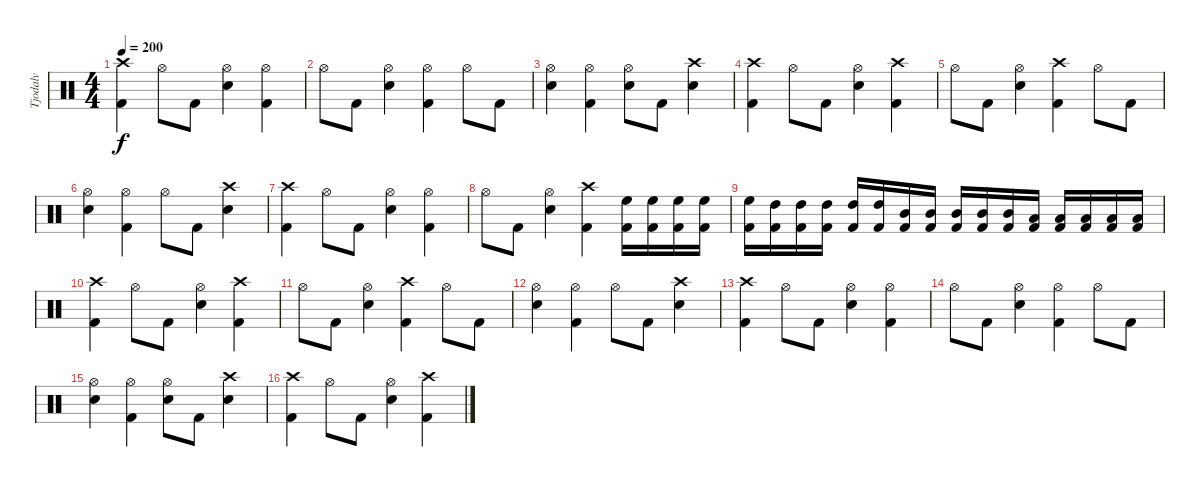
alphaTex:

\track ("Tjodalv" "Tjodalv") {instrument percussion}
\staff {score}
\articulation defaults
\ts (4 4)
\tempo 200
\clef neutral
\ks c
("Kick (hit) 2" "Crash high (hit)").4{dy f} "Hi-Hat (open)".8 "Kick (hit) 2".8 ("Snare (hit) 2" "Hi-Hat (open)").4 ("Kick (hit) 2" "Hi-Hat (open)").4 |
"Hi-Hat (open)".8 "Kick (hit) 2".8 ("Snare (hit) 2" "Hi-Hat (open)").4 ("Kick (hit) 2" "Hi-Hat (open)").4 "Hi-Hat (open)".8 "Kick (hit) 2".8 |
("Snare (hit) 2" "Hi-Hat (open)").4 ("Kick (hit) 2" "Hi-Hat (open)").4 ("Snare (hit) 2" "Hi-Hat (open)").8 "Kick (hit) 2".8 ("Snare (hit) 2" "Crash high (hit)").4 |
("Kick (hit) 2" "Crash high (hit)").4 "Hi-Hat (open)".8 "Kick (hit) 2".8 ("Snare (hit) 2" "Hi-Hat (open)").4 ("Kick (hit) 2" "Crash high (hit)").4 |
"Hi-Hat (open)".8 "Kick (hit) 2".8 ("Snare (hit) 2" "Hi-Hat (open)").4 ("Kick (hit) 2" "Crash high (hit)").4 "Hi-Hat (open)".8 "Kick (hit) 2".8 |
("Snare (hit) 2" "Hi-Hat (open)").4 ("Kick (hit) 2" "Hi-Hat (open)").4 "Hi-Hat (open)".8 "Kick (hit) 2".8 ("Snare (hit) 2" "Crash high (hit)").4 |
("Kick (hit) 2" "Crash high (hit)").4 "Hi-Hat (open)".8 "Kick (hit) 2".8 ("Snare (hit) 2" "Hi-Hat (open)").4 ("Kick (hit) 2" "Hi-Hat (open)").4 |
"Hi-Hat (open)".8 "Kick (hit) 2".8 ("Snare (hit) 2" "Hi-Hat (open)").4 ("Kick (hit) 2" "Crash high (hit)").4 ("Kick (hit) 2" "High Floor Tom (hit)").16 ("Kick (hit) 2" "High Floor Tom (hit)").16 ("Kick (hit) 2" "High Floor Tom (hit)").16 ("Kick (hit) 2" "High Floor Tom (hit)").16 |
("Kick (hit) 2" "High Floor Tom (hit)").16 ("Kick (hit) 2" "High Tom (hit)").16 ("Kick (hit) 2" "High Tom (hit)").16 ("Kick (hit) 2" "High Tom (hit)").16 ("Kick (hit) 2" "High Tom (hit)").16 ("Kick (hit) 2" "High Tom (hit)").16 ("Kick (hit) 2" "Mid Tom (hit)").16 ("Kick (hit) 2" "Mid Tom (hit)").16 ("Kick (hit) 2" "Mid Tom (hit)").16 ("Kick (hit) 2" "Mid Tom (hit)").16 ("Kick (hit) 2" "Mid Tom (hit)").16 ("Kick (hit) 2" "Low Tom (hit)").16 ("Kick (hit) 2" "Low Tom (hit)").16 ("Kick (hit) 2" "Low Tom (hit)").16 ("Kick (hit) 2" "Low Tom (hit)").16 ("Kick (hit) 2" "Low Tom (hit)").16 |
("Kick (hit) 2" "Crash high (hit)").4 "Hi-Hat (open)".8 "Kick (hit) 2".8 ("Snare (hit) 2" "Hi-Hat (open)").4 ("Kick (hit) 2" "Crash high (hit)").4 |
"Hi-Hat (open)".8 "Kick (hit) 2".8 ("Snare (hit) 2" "Hi-Hat (open)").4 ("Kick (hit) 2" "Crash high (hit)").4 "Hi-Hat (open)".8 "Kick (hit) 2".8 |
("Snare (hit) 2" "Hi-Hat (open)").4 ("Kick (hit) 2" "Hi-Hat (open)").4 "Hi-Hat (open)".8 "Kick (hit) 2".8 ("Snare (hit) 2" "Crash high (hit)").4 |
("Kick (hit) 2" "Crash high (hit)").4 "Hi-Hat (open)".8 "Kick (hit) 2".8 ("Snare (hit) 2" "Hi-Hat (open)").4 ("Kick (hit) 2" "Hi-Hat (open)").4 |
"Hi-Hat (open)".8 "Kick (hit) 2".8 ("Snare (hit) 2" "Hi-Hat (open)").4 ("Kick (hit) 2" "Hi-Hat (open)").4 "Hi-Hat (open)".8 "Kick (hit) 2".8 |
("Snare (hit) 2" "Hi-Hat (open)").4 ("Kick (hit) 2" "Hi-Hat (open)").4 ("Snare (hit) 2" "Hi-Hat (open)").8 "Kick (hit) 2".8 ("Snare (hit) 2" "Crash high (hit)").4 |
("Kick (hit) 2" "Crash high (hit)").4 "Hi-Hat (open)".8 "Kick (hit) 2".8 ("Snare (hit) 2" "Hi-Hat (open)").4 ("Kick (hit) 2" "Crash high (hit)").4
